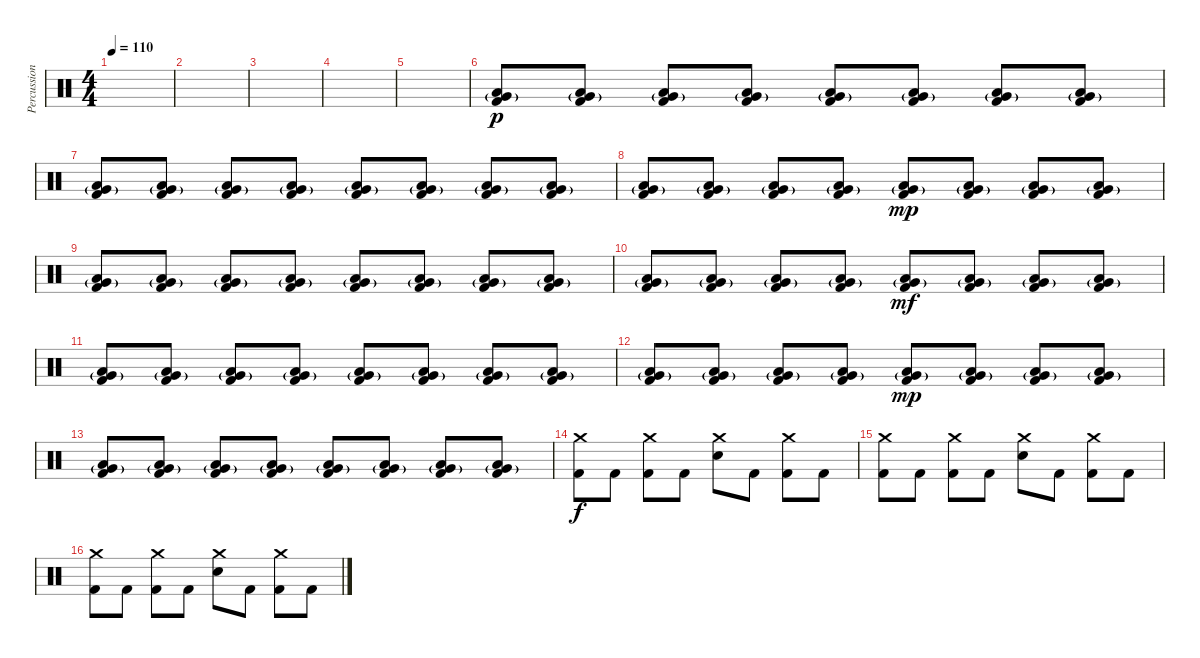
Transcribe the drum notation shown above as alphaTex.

\track ("Percussions" "Percussion") {instrument percussion}
\staff {score}
\articulation defaults
\ts (4 4)
\tempo 110
\clef neutral
\ks c
|
|
|
|
|
("Low Floor Tom (hit)" "Very Low Tom (hit)"{g} "Kick (hit) 2").8{dy p} ("Low Floor Tom (hit)" "Very Low Tom (hit)"{g} "Kick (hit) 2").8 ("Low Floor Tom (hit)" "Very Low Tom (hit)"{g} "Kick (hit) 2").8 ("Low Floor Tom (hit)" "Very Low Tom (hit)"{g} "Kick (hit) 2").8 ("Low Floor Tom (hit)" "Very Low Tom (hit)"{g} "Kick (hit) 2").8 ("Low Floor Tom (hit)" "Very Low Tom (hit)"{g} "Kick (hit) 2").8 ("Low Floor Tom (hit)" "Very Low Tom (hit)"{g} "Kick (hit) 2").8 ("Low Floor Tom (hit)" "Very Low Tom (hit)"{g} "Kick (hit) 2").8 |
("Low Floor Tom (hit)" "Very Low Tom (hit)"{g} "Kick (hit) 2").8 ("Low Floor Tom (hit)" "Very Low Tom (hit)"{g} "Kick (hit) 2").8 ("Low Floor Tom (hit)" "Very Low Tom (hit)"{g} "Kick (hit) 2").8 ("Low Floor Tom (hit)" "Very Low Tom (hit)"{g} "Kick (hit) 2").8 ("Low Floor Tom (hit)" "Very Low Tom (hit)"{g} "Kick (hit) 2").8 ("Low Floor Tom (hit)" "Very Low Tom (hit)"{g} "Kick (hit) 2").8 ("Low Floor Tom (hit)" "Very Low Tom (hit)"{g} "Kick (hit) 2").8 ("Low Floor Tom (hit)" "Very Low Tom (hit)"{g} "Kick (hit) 2").8 |
("Low Floor Tom (hit)" "Very Low Tom (hit)"{g} "Kick (hit) 2").8 ("Low Floor Tom (hit)" "Very Low Tom (hit)"{g} "Kick (hit) 2").8 ("Low Floor Tom (hit)" "Very Low Tom (hit)"{g} "Kick (hit) 2").8 ("Low Floor Tom (hit)" "Very Low Tom (hit)"{g} "Kick (hit) 2").8 ("Low Floor Tom (hit)" "Very Low Tom (hit)"{g} "Kick (hit) 2").8{dy mp} ("Low Floor Tom (hit)" "Very Low Tom (hit)"{g} "Kick (hit) 2").8 ("Low Floor Tom (hit)" "Very Low Tom (hit)"{g} "Kick (hit) 2").8 ("Low Floor Tom (hit)" "Very Low Tom (hit)"{g} "Kick (hit) 2").8 |
("Low Floor Tom (hit)" "Very Low Tom (hit)"{g} "Kick (hit) 2").8 ("Low Floor Tom (hit)" "Very Low Tom (hit)"{g} "Kick (hit) 2").8 ("Low Floor Tom (hit)" "Very Low Tom (hit)"{g} "Kick (hit) 2").8 ("Low Floor Tom (hit)" "Very Low Tom (hit)"{g} "Kick (hit) 2").8 ("Low Floor Tom (hit)" "Very Low Tom (hit)"{g} "Kick (hit) 2").8 ("Low Floor Tom (hit)" "Very Low Tom (hit)"{g} "Kick (hit) 2").8 ("Low Floor Tom (hit)" "Very Low Tom (hit)"{g} "Kick (hit) 2").8 ("Low Floor Tom (hit)" "Very Low Tom (hit)"{g} "Kick (hit) 2").8 |
("Low Floor Tom (hit)" "Very Low Tom (hit)"{g} "Kick (hit) 2").8 ("Low Floor Tom (hit)" "Very Low Tom (hit)"{g} "Kick (hit) 2").8 ("Low Floor Tom (hit)" "Very Low Tom (hit)"{g} "Kick (hit) 2").8 ("Low Floor Tom (hit)" "Very Low Tom (hit)"{g} "Kick (hit) 2").8 ("Low Floor Tom (hit)" "Very Low Tom (hit)"{g} "Kick (hit) 2").8{dy mf} ("Low Floor Tom (hit)" "Very Low Tom (hit)"{g} "Kick (hit) 2").8 ("Low Floor Tom (hit)" "Very Low Tom (hit)"{g} "Kick (hit) 2").8 ("Low Floor Tom (hit)" "Very Low Tom (hit)"{g} "Kick (hit) 2").8 |
("Low Floor Tom (hit)" "Very Low Tom (hit)"{g} "Kick (hit) 2").8 ("Low Floor Tom (hit)" "Very Low Tom (hit)"{g} "Kick (hit) 2").8 ("Low Floor Tom (hit)" "Very Low Tom (hit)"{g} "Kick (hit) 2").8 ("Low Floor Tom (hit)" "Very Low Tom (hit)"{g} "Kick (hit) 2").8 ("Low Floor Tom (hit)" "Very Low Tom (hit)"{g} "Kick (hit) 2").8 ("Low Floor Tom (hit)" "Very Low Tom (hit)"{g} "Kick (hit) 2").8 ("Low Floor Tom (hit)" "Very Low Tom (hit)"{g} "Kick (hit) 2").8 ("Low Floor Tom (hit)" "Very Low Tom (hit)"{g} "Kick (hit) 2").8 |
("Low Floor Tom (hit)" "Very Low Tom (hit)"{g} "Kick (hit) 2").8 ("Low Floor Tom (hit)" "Very Low Tom (hit)"{g} "Kick (hit) 2").8 ("Low Floor Tom (hit)" "Very Low Tom (hit)"{g} "Kick (hit) 2").8 ("Low Floor Tom (hit)" "Very Low Tom (hit)"{g} "Kick (hit) 2").8 ("Low Floor Tom (hit)" "Very Low Tom (hit)"{g} "Kick (hit) 2").8{dy mp} ("Low Floor Tom (hit)" "Very Low Tom (hit)"{g} "Kick (hit) 2").8 ("Low Floor Tom (hit)" "Very Low Tom (hit)"{g} "Kick (hit) 2").8 ("Low Floor Tom (hit)" "Very Low Tom (hit)"{g} "Kick (hit) 2").8 |
("Low Floor Tom (hit)" "Very Low Tom (hit)"{g} "Kick (hit) 2").8 ("Low Floor Tom (hit)" "Very Low Tom (hit)"{g} "Kick (hit) 2").8 ("Low Floor Tom (hit)" "Very Low Tom (hit)"{g} "Kick (hit) 2").8 ("Low Floor Tom (hit)" "Very Low Tom (hit)"{g} "Kick (hit) 2").8 ("Low Floor Tom (hit)" "Very Low Tom (hit)"{g} "Kick (hit) 2").8 ("Low Floor Tom (hit)" "Very Low Tom (hit)"{g} "Kick (hit) 2").8 ("Low Floor Tom (hit)" "Very Low Tom (hit)"{g} "Kick (hit) 2").8 ("Low Floor Tom (hit)" "Very Low Tom (hit)"{g} "Kick (hit) 2").8 |
("Crash medium (hit)" "Kick (hit) 2").8{dy f} "Kick (hit) 2".8 ("Crash medium (hit)" "Kick (hit) 2").8 "Kick (hit) 2".8 ("Crash medium (hit)" "Snare (hit) 2").8 "Kick (hit) 2".8 ("Crash medium (hit)" "Kick (hit) 2").8 "Kick (hit) 2".8 |
("Crash medium (hit)" "Kick (hit) 2").8 "Kick (hit) 2".8 ("Crash medium (hit)" "Kick (hit) 2").8 "Kick (hit) 2".8 ("Crash medium (hit)" "Snare (hit) 2").8 "Kick (hit) 2".8 ("Crash medium (hit)" "Kick (hit) 2").8 "Kick (hit) 2".8 |
("Crash medium (hit)" "Kick (hit) 2").8 "Kick (hit) 2".8 ("Crash medium (hit)" "Kick (hit) 2").8 "Kick (hit) 2".8 ("Crash medium (hit)" "Snare (hit) 2").8 "Kick (hit) 2".8 ("Crash medium (hit)" "Kick (hit) 2").8 "Kick (hit) 2".8
